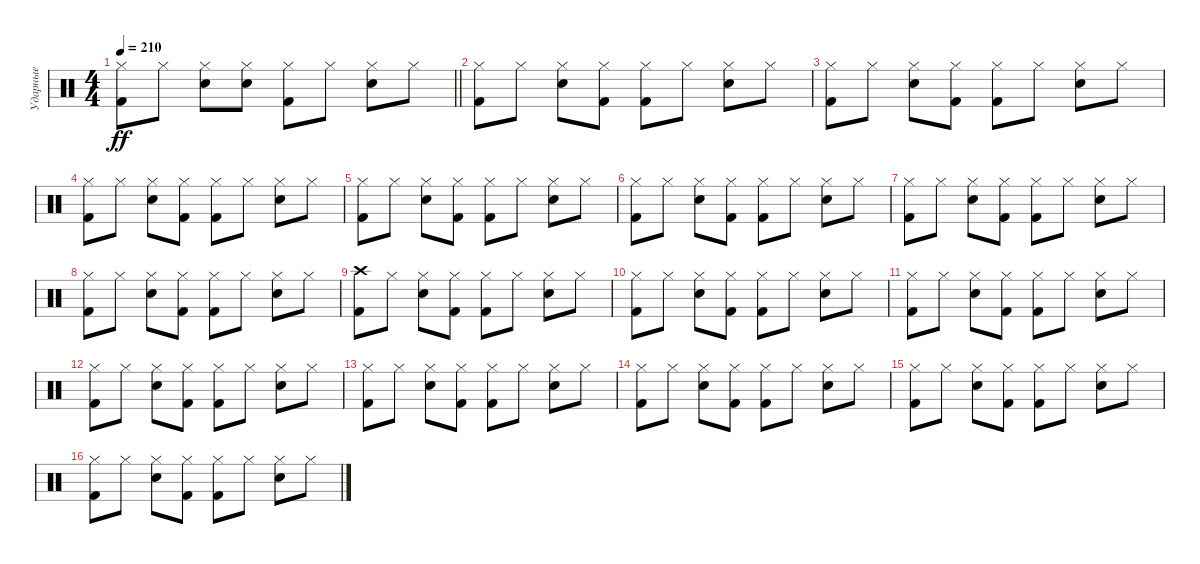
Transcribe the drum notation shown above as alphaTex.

\track ("Ударные" "Ударные") {instrument percussion}
\staff {score}
\articulation defaults
\ts (4 4)
\tempo 210
\clef neutral
\barLineRight lightlight
\ks c
("Hi-Hat (closed)" "Kick (hit) 2").8{dy ff} "Hi-Hat (closed)".8 ("Hi-Hat (closed)" "Snare (hit) 2").8 ("Hi-Hat (closed)" "Snare (hit) 2").8 ("Hi-Hat (closed)" "Kick (hit) 2").8 "Hi-Hat (closed)".8 ("Hi-Hat (closed)" "Snare (hit) 2").8 "Hi-Hat (closed)".8 |
("Hi-Hat (closed)" "Kick (hit) 2").8 "Hi-Hat (closed)".8 ("Hi-Hat (closed)" "Snare (hit) 2").8 ("Hi-Hat (closed)" "Kick (hit) 2").8 ("Hi-Hat (closed)" "Kick (hit) 2").8 "Hi-Hat (closed)".8 ("Hi-Hat (closed)" "Snare (hit) 2").8 "Hi-Hat (closed)".8 |
("Hi-Hat (closed)" "Kick (hit) 2").8 "Hi-Hat (closed)".8 ("Hi-Hat (closed)" "Snare (hit) 2").8 ("Hi-Hat (closed)" "Kick (hit) 2").8 ("Hi-Hat (closed)" "Kick (hit) 2").8 "Hi-Hat (closed)".8 ("Hi-Hat (closed)" "Snare (hit) 2").8 "Hi-Hat (closed)".8 |
("Hi-Hat (closed)" "Kick (hit) 2").8 "Hi-Hat (closed)".8 ("Hi-Hat (closed)" "Snare (hit) 2").8 ("Hi-Hat (closed)" "Kick (hit) 2").8 ("Hi-Hat (closed)" "Kick (hit) 2").8 "Hi-Hat (closed)".8 ("Hi-Hat (closed)" "Snare (hit) 2").8 "Hi-Hat (closed)".8 |
("Hi-Hat (closed)" "Kick (hit) 2").8 "Hi-Hat (closed)".8 ("Hi-Hat (closed)" "Snare (hit) 2").8 ("Hi-Hat (closed)" "Kick (hit) 2").8 ("Hi-Hat (closed)" "Kick (hit) 2").8 "Hi-Hat (closed)".8 ("Hi-Hat (closed)" "Snare (hit) 2").8 "Hi-Hat (closed)".8 |
("Hi-Hat (closed)" "Kick (hit) 2").8 "Hi-Hat (closed)".8 ("Hi-Hat (closed)" "Snare (hit) 2").8 ("Hi-Hat (closed)" "Kick (hit) 2").8 ("Hi-Hat (closed)" "Kick (hit) 2").8 "Hi-Hat (closed)".8 ("Hi-Hat (closed)" "Snare (hit) 2").8 "Hi-Hat (closed)".8 |
("Hi-Hat (closed)" "Kick (hit) 2").8 "Hi-Hat (closed)".8 ("Hi-Hat (closed)" "Snare (hit) 2").8 ("Hi-Hat (closed)" "Kick (hit) 2").8 ("Hi-Hat (closed)" "Kick (hit) 2").8 "Hi-Hat (closed)".8 ("Hi-Hat (closed)" "Snare (hit) 2").8 "Hi-Hat (closed)".8 |
("Hi-Hat (closed)" "Kick (hit) 2").8 "Hi-Hat (closed)".8 ("Hi-Hat (closed)" "Snare (hit) 2").8 ("Hi-Hat (closed)" "Kick (hit) 2").8 ("Hi-Hat (closed)" "Kick (hit) 2").8 "Hi-Hat (closed)".8 ("Hi-Hat (closed)" "Snare (hit) 2").8 "Hi-Hat (closed)".8 |
("Crash high (hit)" "Kick (hit) 2").8 "Hi-Hat (closed)".8 ("Hi-Hat (closed)" "Snare (hit) 2").8 ("Hi-Hat (closed)" "Kick (hit) 2").8 ("Hi-Hat (closed)" "Kick (hit) 2").8 "Hi-Hat (closed)".8 ("Hi-Hat (closed)" "Snare (hit) 2").8 "Hi-Hat (closed)".8 |
("Hi-Hat (closed)" "Kick (hit) 2").8 "Hi-Hat (closed)".8 ("Hi-Hat (closed)" "Snare (hit) 2").8 ("Hi-Hat (closed)" "Kick (hit) 2").8 ("Hi-Hat (closed)" "Kick (hit) 2").8 "Hi-Hat (closed)".8 ("Hi-Hat (closed)" "Snare (hit) 2").8 "Hi-Hat (closed)".8 |
("Hi-Hat (closed)" "Kick (hit) 2").8 "Hi-Hat (closed)".8 ("Hi-Hat (closed)" "Snare (hit) 2").8 ("Hi-Hat (closed)" "Kick (hit) 2").8 ("Hi-Hat (closed)" "Kick (hit) 2").8 "Hi-Hat (closed)".8 ("Hi-Hat (closed)" "Snare (hit) 2").8 "Hi-Hat (closed)".8 |
("Hi-Hat (closed)" "Kick (hit) 2").8 "Hi-Hat (closed)".8 ("Hi-Hat (closed)" "Snare (hit) 2").8 ("Hi-Hat (closed)" "Kick (hit) 2").8 ("Hi-Hat (closed)" "Kick (hit) 2").8 "Hi-Hat (closed)".8 ("Hi-Hat (closed)" "Snare (hit) 2").8 "Hi-Hat (closed)".8 |
("Hi-Hat (closed)" "Kick (hit) 2").8 "Hi-Hat (closed)".8 ("Hi-Hat (closed)" "Snare (hit) 2").8 ("Hi-Hat (closed)" "Kick (hit) 2").8 ("Hi-Hat (closed)" "Kick (hit) 2").8 "Hi-Hat (closed)".8 ("Hi-Hat (closed)" "Snare (hit) 2").8 "Hi-Hat (closed)".8 |
("Hi-Hat (closed)" "Kick (hit) 2").8 "Hi-Hat (closed)".8 ("Hi-Hat (closed)" "Snare (hit) 2").8 ("Hi-Hat (closed)" "Kick (hit) 2").8 ("Hi-Hat (closed)" "Kick (hit) 2").8 "Hi-Hat (closed)".8 ("Hi-Hat (closed)" "Snare (hit) 2").8 "Hi-Hat (closed)".8 |
("Hi-Hat (closed)" "Kick (hit) 2").8 "Hi-Hat (closed)".8 ("Hi-Hat (closed)" "Snare (hit) 2").8 ("Hi-Hat (closed)" "Kick (hit) 2").8 ("Hi-Hat (closed)" "Kick (hit) 2").8 "Hi-Hat (closed)".8 ("Hi-Hat (closed)" "Snare (hit) 2").8 "Hi-Hat (closed)".8 |
("Hi-Hat (closed)" "Kick (hit) 2").8 "Hi-Hat (closed)".8 ("Hi-Hat (closed)" "Snare (hit) 2").8 ("Hi-Hat (closed)" "Kick (hit) 2").8 ("Hi-Hat (closed)" "Kick (hit) 2").8 "Hi-Hat (closed)".8 ("Hi-Hat (closed)" "Snare (hit) 2").8 "Hi-Hat (closed)".8
